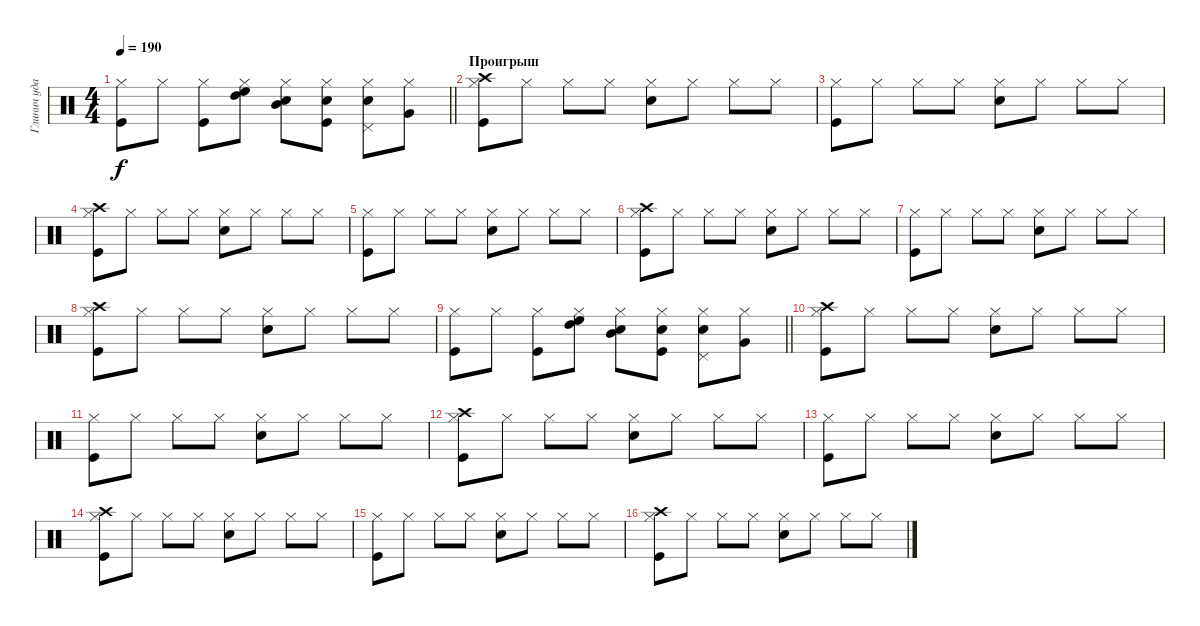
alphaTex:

\track ("Глинич ударные" "Глинич уда") {instrument percussion}
\staff {score}
\articulation defaults
\ts (4 4)
\tempo 190
\clef neutral
\barLineRight lightlight
\ks c
("Hi-Hat (closed)" "Kick (hit)").8{dy f} "Hi-Hat (closed)".8 ("Hi-Hat (closed)" "Kick (hit)").8 ("Hi-Hat (closed)" "High Tom (hit)" "High Floor Tom (hit)").8 ("Hi-Hat (closed)" "Mid Tom (hit)" "Snare (hit) 2").8 ("Hi-Hat (closed)" "Kick (hit)" "Snare (hit) 2").8 ("Hi-Hat (closed)" "Pedal Hi-Hat (hit)" "Snare (hit) 2").8 ("Hi-Hat (closed)" "Very Low Tom (hit)").8 |
\section ("" "Проигрыш")
("Hi-Hat (closed)" "Kick (hit)" "Crash high (hit)").8 "Hi-Hat (closed)".8 "Hi-Hat (closed)".8 "Hi-Hat (closed)".8 ("Hi-Hat (closed)" "Snare (hit) 2").8 "Hi-Hat (closed)".8 "Hi-Hat (closed)".8 "Hi-Hat (closed)".8 |
("Hi-Hat (closed)" "Kick (hit)").8 "Hi-Hat (closed)".8 "Hi-Hat (closed)".8 "Hi-Hat (closed)".8 ("Hi-Hat (closed)" "Snare (hit) 2").8 "Hi-Hat (closed)".8 "Hi-Hat (closed)".8 "Hi-Hat (closed)".8 |
("Hi-Hat (closed)" "Kick (hit)" "Crash high (hit)").8 "Hi-Hat (closed)".8 "Hi-Hat (closed)".8 "Hi-Hat (closed)".8 ("Hi-Hat (closed)" "Snare (hit) 2").8 "Hi-Hat (closed)".8 "Hi-Hat (closed)".8 "Hi-Hat (closed)".8 |
("Hi-Hat (closed)" "Kick (hit)").8 "Hi-Hat (closed)".8 "Hi-Hat (closed)".8 "Hi-Hat (closed)".8 ("Hi-Hat (closed)" "Snare (hit) 2").8 "Hi-Hat (closed)".8 "Hi-Hat (closed)".8 "Hi-Hat (closed)".8 |
("Hi-Hat (closed)" "Kick (hit)" "Crash high (hit)").8 "Hi-Hat (closed)".8 "Hi-Hat (closed)".8 "Hi-Hat (closed)".8 ("Hi-Hat (closed)" "Snare (hit) 2").8 "Hi-Hat (closed)".8 "Hi-Hat (closed)".8 "Hi-Hat (closed)".8 |
("Hi-Hat (closed)" "Kick (hit)").8 "Hi-Hat (closed)".8 "Hi-Hat (closed)".8 "Hi-Hat (closed)".8 ("Hi-Hat (closed)" "Snare (hit) 2").8 "Hi-Hat (closed)".8 "Hi-Hat (closed)".8 "Hi-Hat (closed)".8 |
("Hi-Hat (closed)" "Kick (hit)" "Crash high (hit)").8 "Hi-Hat (closed)".8 "Hi-Hat (closed)".8 "Hi-Hat (closed)".8 ("Hi-Hat (closed)" "Snare (hit) 2").8 "Hi-Hat (closed)".8 "Hi-Hat (closed)".8 "Hi-Hat (closed)".8 |
\barLineRight lightlight
("Hi-Hat (closed)" "Kick (hit)").8 "Hi-Hat (closed)".8 ("Hi-Hat (closed)" "Kick (hit)").8 ("Hi-Hat (closed)" "High Tom (hit)" "High Floor Tom (hit)").8 ("Hi-Hat (closed)" "Mid Tom (hit)" "Snare (hit) 2").8 ("Hi-Hat (closed)" "Kick (hit)" "Snare (hit) 2").8 ("Hi-Hat (closed)" "Pedal Hi-Hat (hit)" "Snare (hit) 2").8 ("Hi-Hat (closed)" "Very Low Tom (hit)").8 |
("Hi-Hat (closed)" "Kick (hit)" "Crash high (hit)").8 "Hi-Hat (closed)".8 "Hi-Hat (closed)".8 "Hi-Hat (closed)".8 ("Hi-Hat (closed)" "Snare (hit) 2").8 "Hi-Hat (closed)".8 "Hi-Hat (closed)".8 "Hi-Hat (closed)".8 |
("Hi-Hat (closed)" "Kick (hit)").8 "Hi-Hat (closed)".8 "Hi-Hat (closed)".8 "Hi-Hat (closed)".8 ("Hi-Hat (closed)" "Snare (hit) 2").8 "Hi-Hat (closed)".8 "Hi-Hat (closed)".8 "Hi-Hat (closed)".8 |
("Hi-Hat (closed)" "Kick (hit)" "Crash high (hit)").8 "Hi-Hat (closed)".8 "Hi-Hat (closed)".8 "Hi-Hat (closed)".8 ("Hi-Hat (closed)" "Snare (hit) 2").8 "Hi-Hat (closed)".8 "Hi-Hat (closed)".8 "Hi-Hat (closed)".8 |
("Hi-Hat (closed)" "Kick (hit)").8 "Hi-Hat (closed)".8 "Hi-Hat (closed)".8 "Hi-Hat (closed)".8 ("Hi-Hat (closed)" "Snare (hit) 2").8 "Hi-Hat (closed)".8 "Hi-Hat (closed)".8 "Hi-Hat (closed)".8 |
("Hi-Hat (closed)" "Kick (hit)" "Crash high (hit)").8 "Hi-Hat (closed)".8 "Hi-Hat (closed)".8 "Hi-Hat (closed)".8 ("Hi-Hat (closed)" "Snare (hit) 2").8 "Hi-Hat (closed)".8 "Hi-Hat (closed)".8 "Hi-Hat (closed)".8 |
("Hi-Hat (closed)" "Kick (hit)").8 "Hi-Hat (closed)".8 "Hi-Hat (closed)".8 "Hi-Hat (closed)".8 ("Hi-Hat (closed)" "Snare (hit) 2").8 "Hi-Hat (closed)".8 "Hi-Hat (closed)".8 "Hi-Hat (closed)".8 |
("Hi-Hat (closed)" "Kick (hit)" "Crash high (hit)").8 "Hi-Hat (closed)".8 "Hi-Hat (closed)".8 "Hi-Hat (closed)".8 ("Hi-Hat (closed)" "Snare (hit) 2").8 "Hi-Hat (closed)".8 "Hi-Hat (closed)".8 "Hi-Hat (closed)".8
